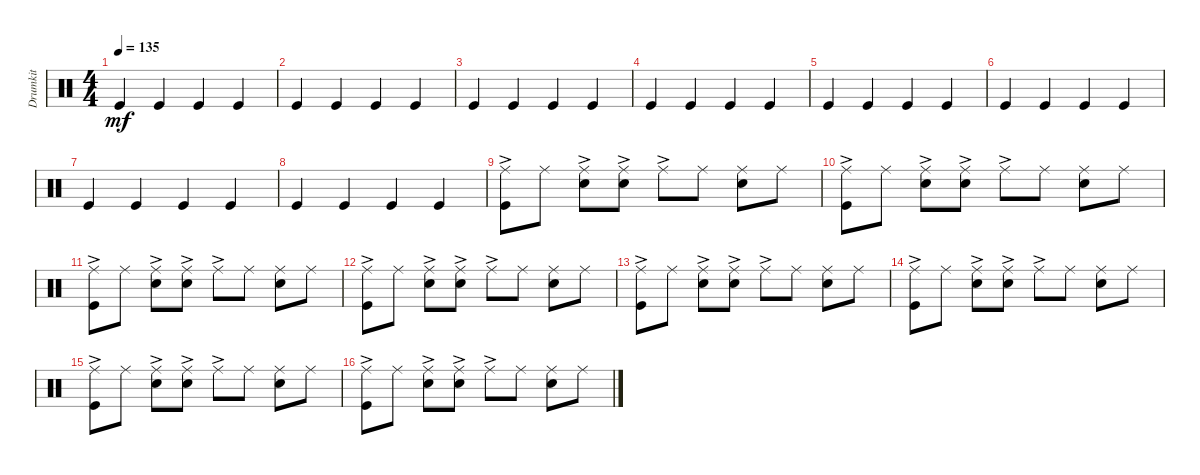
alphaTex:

\track ("Drumkit" "Drumkit") {instrument percussion}
\staff {score}
\articulation defaults
\ts (4 4)
\tempo 135
\clef neutral
\ks c "Kick (hit)".4{dy mf} "Kick (hit)".4 "Kick (hit)".4 "Kick (hit)".4
|
"Kick (hit)".4 "Kick (hit)".4 "Kick (hit)".4 "Kick (hit)".4 |
"Kick (hit)".4 "Kick (hit)".4 "Kick (hit)".4 "Kick (hit)".4 |
"Kick (hit)".4 "Kick (hit)".4 "Kick (hit)".4 "Kick (hit)".4 |
"Kick (hit)".4 "Kick (hit)".4 "Kick (hit)".4 "Kick (hit)".4 |
"Kick (hit)".4 "Kick (hit)".4 "Kick (hit)".4 "Kick (hit)".4 |
"Kick (hit)".4 "Kick (hit)".4 "Kick (hit)".4 "Kick (hit)".4 |
"Kick (hit)".4 "Kick (hit)".4 "Kick (hit)".4 "Kick (hit)".4 |
("Ride (middle)"{ac} "Kick (hit)").8 "Ride (middle)".8 ("Ride (middle)" "Snare (hit) 2"{ac}).8 ("Ride (middle)" "Snare (hit) 2"{ac}).8 "Ride (middle)"{ac}.8 "Ride (middle)".8 ("Ride (middle)" "Snare (hit) 2").8 "Ride (middle)".8 |
("Ride (middle)"{ac} "Kick (hit)").8 "Ride (middle)".8 ("Ride (middle)" "Snare (hit) 2"{ac}).8 ("Ride (middle)" "Snare (hit) 2"{ac}).8 "Ride (middle)"{ac}.8 "Ride (middle)".8 ("Ride (middle)" "Snare (hit) 2").8 "Ride (middle)".8 |
("Ride (middle)"{ac} "Kick (hit)").8 "Ride (middle)".8 ("Ride (middle)" "Snare (hit) 2"{ac}).8 ("Ride (middle)" "Snare (hit) 2"{ac}).8 "Ride (middle)"{ac}.8 "Ride (middle)".8 ("Ride (middle)" "Snare (hit) 2").8 "Ride (middle)".8 |
("Ride (middle)"{ac} "Kick (hit)").8 "Ride (middle)".8 ("Ride (middle)" "Snare (hit) 2"{ac}).8 ("Ride (middle)" "Snare (hit) 2"{ac}).8 "Ride (middle)"{ac}.8 "Ride (middle)".8 ("Ride (middle)" "Snare (hit) 2").8 "Ride (middle)".8 |
("Ride (middle)"{ac} "Kick (hit)").8 "Ride (middle)".8 ("Ride (middle)" "Snare (hit) 2"{ac}).8 ("Ride (middle)" "Snare (hit) 2"{ac}).8 "Ride (middle)"{ac}.8 "Ride (middle)".8 ("Ride (middle)" "Snare (hit) 2").8 "Ride (middle)".8 |
("Ride (middle)"{ac} "Kick (hit)").8 "Ride (middle)".8 ("Ride (middle)" "Snare (hit) 2"{ac}).8 ("Ride (middle)" "Snare (hit) 2"{ac}).8 "Ride (middle)"{ac}.8 "Ride (middle)".8 ("Ride (middle)" "Snare (hit) 2").8 "Ride (middle)".8 |
("Ride (middle)"{ac} "Kick (hit)").8 "Ride (middle)".8 ("Ride (middle)" "Snare (hit) 2"{ac}).8 ("Ride (middle)" "Snare (hit) 2"{ac}).8 "Ride (middle)"{ac}.8 "Ride (middle)".8 ("Ride (middle)" "Snare (hit) 2").8 "Ride (middle)".8 |
("Ride (middle)"{ac} "Kick (hit)").8 "Ride (middle)".8 ("Ride (middle)" "Snare (hit) 2"{ac}).8 ("Ride (middle)" "Snare (hit) 2"{ac}).8 "Ride (middle)"{ac}.8 "Ride (middle)".8 ("Ride (middle)" "Snare (hit) 2").8 "Ride (middle)".8
